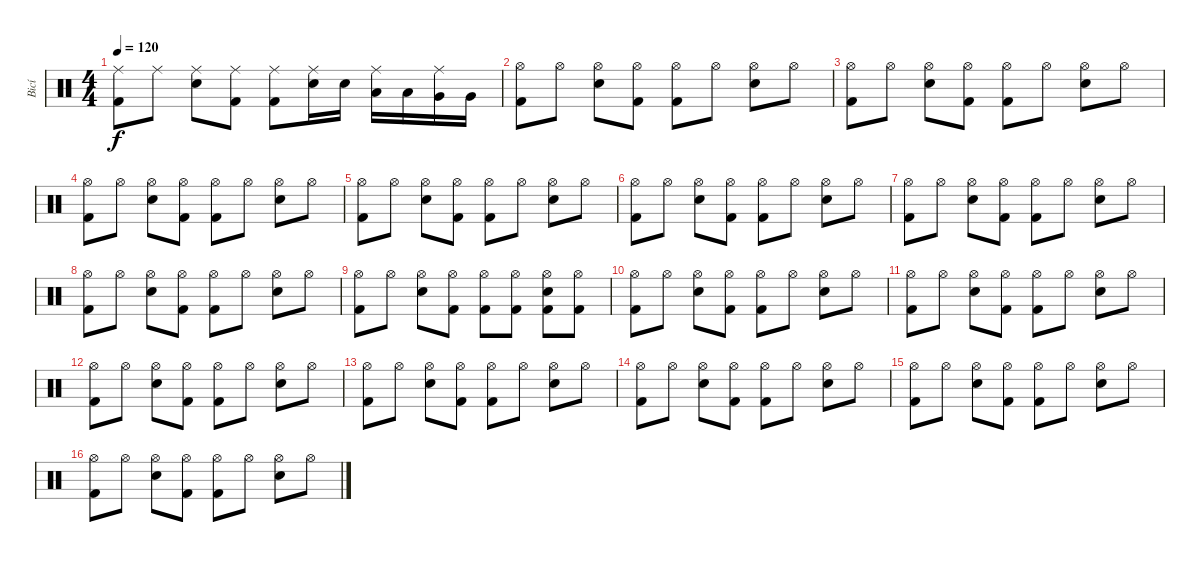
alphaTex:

\track ("Bicí" "Bicí") {instrument percussion}
\staff {score}
\articulation defaults
\ts (4 4)
\tempo 120
\clef neutral
\ks c
("Ride (middle)" "Kick (hit) 2").8{dy f} "Ride (middle)".8 ("Ride (middle)" "Electric Snare (hit)").8 ("Ride (middle)" "Kick (hit) 2").8 ("Ride (middle)" "Kick (hit) 2").8 ("Ride (middle)" "Electric Snare (hit)").16 "Electric Snare (hit)".16 ("Low Tom (hit)" "Ride (middle)").16 "Low Tom (hit)".16 ("Very Low Tom (hit)" "Ride (middle)").16 "Very Low Tom (hit)".16 |
("Hi-Hat (open)" "Kick (hit) 2").8 "Hi-Hat (open)".8 ("Hi-Hat (open)" "Electric Snare (hit)").8 ("Hi-Hat (open)" "Kick (hit) 2").8 ("Hi-Hat (open)" "Kick (hit) 2").8 "Hi-Hat (open)".8 ("Hi-Hat (open)" "Electric Snare (hit)").8 "Hi-Hat (open)".8 |
("Hi-Hat (open)" "Kick (hit) 2").8 "Hi-Hat (open)".8 ("Hi-Hat (open)" "Electric Snare (hit)").8 ("Hi-Hat (open)" "Kick (hit) 2").8 ("Hi-Hat (open)" "Kick (hit) 2").8 "Hi-Hat (open)".8 ("Hi-Hat (open)" "Electric Snare (hit)").8 "Hi-Hat (open)".8 |
("Hi-Hat (open)" "Kick (hit) 2").8 "Hi-Hat (open)".8 ("Hi-Hat (open)" "Electric Snare (hit)").8 ("Hi-Hat (open)" "Kick (hit) 2").8 ("Hi-Hat (open)" "Kick (hit) 2").8 "Hi-Hat (open)".8 ("Hi-Hat (open)" "Electric Snare (hit)").8 "Hi-Hat (open)".8 |
("Hi-Hat (open)" "Kick (hit) 2").8 "Hi-Hat (open)".8 ("Hi-Hat (open)" "Electric Snare (hit)").8 ("Hi-Hat (open)" "Kick (hit) 2").8 ("Hi-Hat (open)" "Kick (hit) 2").8 "Hi-Hat (open)".8 ("Hi-Hat (open)" "Electric Snare (hit)").8 "Hi-Hat (open)".8 |
("Hi-Hat (open)" "Kick (hit) 2").8 "Hi-Hat (open)".8 ("Hi-Hat (open)" "Electric Snare (hit)").8 ("Hi-Hat (open)" "Kick (hit) 2").8 ("Hi-Hat (open)" "Kick (hit) 2").8 "Hi-Hat (open)".8 ("Hi-Hat (open)" "Electric Snare (hit)").8 "Hi-Hat (open)".8 |
("Hi-Hat (open)" "Kick (hit) 2").8 "Hi-Hat (open)".8 ("Hi-Hat (open)" "Electric Snare (hit)").8 ("Hi-Hat (open)" "Kick (hit) 2").8 ("Hi-Hat (open)" "Kick (hit) 2").8 "Hi-Hat (open)".8 ("Hi-Hat (open)" "Electric Snare (hit)").8 "Hi-Hat (open)".8 |
("Hi-Hat (open)" "Kick (hit) 2").8 "Hi-Hat (open)".8 ("Hi-Hat (open)" "Electric Snare (hit)").8 ("Hi-Hat (open)" "Kick (hit) 2").8 ("Hi-Hat (open)" "Kick (hit) 2").8 "Hi-Hat (open)".8 ("Hi-Hat (open)" "Electric Snare (hit)").8 "Hi-Hat (open)".8 |
("Hi-Hat (open)" "Kick (hit) 2").8 "Hi-Hat (open)".8 ("Hi-Hat (open)" "Electric Snare (hit)").8 ("Hi-Hat (open)" "Kick (hit) 2").8 ("Hi-Hat (open)" "Kick (hit) 2").8 ("Hi-Hat (open)" "Kick (hit) 2").8 ("Hi-Hat (open)" "Electric Snare (hit)" "Kick (hit) 2").8 ("Hi-Hat (open)" "Kick (hit) 2").8 |
("Hi-Hat (open)" "Kick (hit) 2").8 "Hi-Hat (open)".8 ("Hi-Hat (open)" "Electric Snare (hit)").8 ("Hi-Hat (open)" "Kick (hit) 2").8 ("Hi-Hat (open)" "Kick (hit) 2").8 "Hi-Hat (open)".8 ("Hi-Hat (open)" "Electric Snare (hit)").8 "Hi-Hat (open)".8 |
("Hi-Hat (open)" "Kick (hit) 2").8 "Hi-Hat (open)".8 ("Hi-Hat (open)" "Electric Snare (hit)").8 ("Hi-Hat (open)" "Kick (hit) 2").8 ("Hi-Hat (open)" "Kick (hit) 2").8 "Hi-Hat (open)".8 ("Hi-Hat (open)" "Electric Snare (hit)").8 "Hi-Hat (open)".8 |
("Hi-Hat (open)" "Kick (hit) 2").8 "Hi-Hat (open)".8 ("Hi-Hat (open)" "Electric Snare (hit)").8 ("Hi-Hat (open)" "Kick (hit) 2").8 ("Hi-Hat (open)" "Kick (hit) 2").8 "Hi-Hat (open)".8 ("Hi-Hat (open)" "Electric Snare (hit)").8 "Hi-Hat (open)".8 |
("Hi-Hat (open)" "Kick (hit) 2").8 "Hi-Hat (open)".8 ("Hi-Hat (open)" "Electric Snare (hit)").8 ("Hi-Hat (open)" "Kick (hit) 2").8 ("Hi-Hat (open)" "Kick (hit) 2").8 "Hi-Hat (open)".8 ("Hi-Hat (open)" "Electric Snare (hit)").8 "Hi-Hat (open)".8 |
("Hi-Hat (open)" "Kick (hit) 2").8 "Hi-Hat (open)".8 ("Hi-Hat (open)" "Electric Snare (hit)").8 ("Hi-Hat (open)" "Kick (hit) 2").8 ("Hi-Hat (open)" "Kick (hit) 2").8 "Hi-Hat (open)".8 ("Hi-Hat (open)" "Electric Snare (hit)").8 "Hi-Hat (open)".8 |
("Hi-Hat (open)" "Kick (hit) 2").8 "Hi-Hat (open)".8 ("Hi-Hat (open)" "Electric Snare (hit)").8 ("Hi-Hat (open)" "Kick (hit) 2").8 ("Hi-Hat (open)" "Kick (hit) 2").8 "Hi-Hat (open)".8 ("Hi-Hat (open)" "Electric Snare (hit)").8 "Hi-Hat (open)".8 |
("Hi-Hat (open)" "Kick (hit) 2").8 "Hi-Hat (open)".8 ("Hi-Hat (open)" "Electric Snare (hit)").8 ("Hi-Hat (open)" "Kick (hit) 2").8 ("Hi-Hat (open)" "Kick (hit) 2").8 "Hi-Hat (open)".8 ("Hi-Hat (open)" "Electric Snare (hit)").8 "Hi-Hat (open)".8
